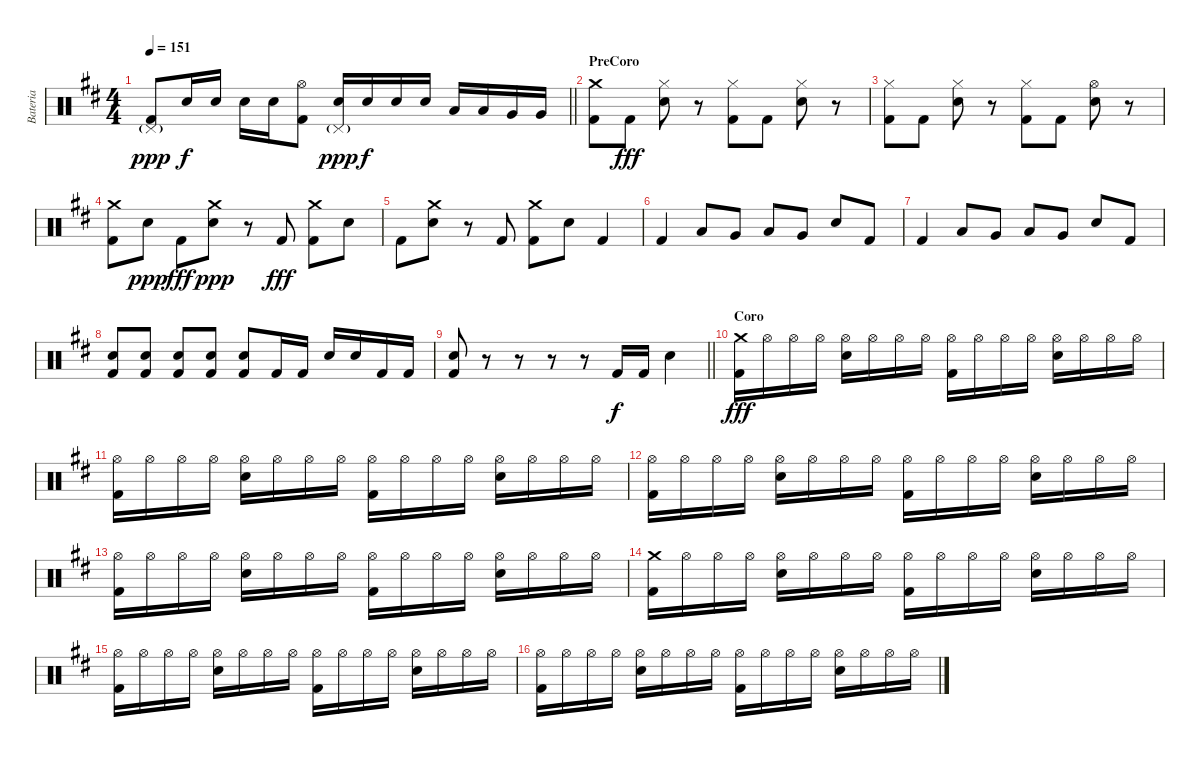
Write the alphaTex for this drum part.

\track ("Bateria " "Bateria ") {instrument percussion}
\staff {score}
\articulation defaults
\ts (4 4)
\tempo 151
\clef neutral
\barLineRight lightlight
\ks d
("Pedal Hi-Hat (hit)"{g} "Kick (hit) 2").8{dy ppp} "Electric Snare (hit)".16{dy f} "Electric Snare (hit)".16 "Electric Snare (hit)".16 "Electric Snare (hit)".16 ("Hi-Hat (open)" "Kick (hit) 2").8 ("Pedal Hi-Hat (hit)"{g} "Electric Snare (hit)").16{dy ppp} "Electric Snare (hit)".16{dy f} "Electric Snare (hit)".16 "Electric Snare (hit)".16 "Low Tom (hit)".16 "Low Tom (hit)".16 "Very Low Tom (hit)".16 "Very Low Tom (hit)".16 |
\section ("" "PreCoro")
("Crash medium (hit)" "Kick (hit) 2").8 "Kick (hit) 2".8{dy fff} ("Hi-Hat (closed)" "Electric Snare (hit)").8 r.8 ("Hi-Hat (closed)" "Kick (hit) 2").8 "Kick (hit) 2".8 ("Hi-Hat (closed)" "Electric Snare (hit)").8 r.8 |
("Hi-Hat (closed)" "Kick (hit) 2").8 "Kick (hit) 2".8 ("Hi-Hat (closed)" "Electric Snare (hit)").8 r.8 ("Hi-Hat (closed)" "Kick (hit) 2").8 "Kick (hit) 2".8 ("Hi-Hat (open)" "Electric Snare (hit)").8 r.8 |
("Crash medium (hit)" "Kick (hit) 2").8 "Electric Snare (hit)".8{dy ppp} "Kick (hit) 2".8{dy fff} ("Crash medium (hit)" "Electric Snare (hit)").8{dy ppp} r.8 "Kick (hit) 2".8{dy fff} ("Crash medium (hit)" "Kick (hit) 2").8 "Electric Snare (hit)".8 |
"Kick (hit) 2".8 ("Crash medium (hit)" "Electric Snare (hit)").8 r.8 "Kick (hit) 2".8 ("Crash medium (hit)" "Kick (hit) 2").8 "Electric Snare (hit)".8 "Kick (hit) 2".4 |
"Kick (hit) 2".4 "Low Tom (hit)".8 "Very Low Tom (hit)".8 "Low Floor Tom (hit)".8 "Very Low Tom (hit)".8 "Electric Snare (hit)".8 "Kick (hit) 2".8 |
"Kick (hit) 2".4 "Low Tom (hit)".8 "Very Low Tom (hit)".8 "Low Floor Tom (hit)".8 "Very Low Tom (hit)".8 "Electric Snare (hit)".8 "Kick (hit) 2".8 |
("Electric Snare (hit)" "Kick (hit) 2").8 ("Electric Snare (hit)" "Kick (hit) 2").8 ("Electric Snare (hit)" "Kick (hit) 2").8 ("Electric Snare (hit)" "Kick (hit) 2").8 ("Electric Snare (hit)" "Kick (hit) 2").8 "Kick (hit) 2".16 "Kick (hit) 2".16 "Electric Snare (hit)".16 "Electric Snare (hit)".16 "Kick (hit) 2".16 "Kick (hit) 2".16 |
\barLineRight lightlight
("Electric Snare (hit)" "Kick (hit) 2").8 r.8 r.8 r.8 r.8 "Kick (hit) 2".16{dy f} "Kick (hit) 2".16 "Electric Snare (hit)".4 |
\section ("" "Coro")
("Crash medium (hit)" "Kick (hit) 2").16{dy fff} "Hi-Hat (open)".16 "Hi-Hat (open)".16 "Hi-Hat (open)".16 ("Hi-Hat (open)" "Electric Snare (hit)").16 "Hi-Hat (open)".16 "Hi-Hat (open)".16 "Hi-Hat (open)".16 ("Hi-Hat (open)" "Kick (hit) 2").16 "Hi-Hat (open)".16 "Hi-Hat (open)".16 "Hi-Hat (open)".16 ("Hi-Hat (open)" "Electric Snare (hit)").16 "Hi-Hat (open)".16 "Hi-Hat (open)".16 "Hi-Hat (open)".16 |
("Hi-Hat (open)" "Kick (hit) 2").16 "Hi-Hat (open)".16 "Hi-Hat (open)".16 "Hi-Hat (open)".16 ("Hi-Hat (open)" "Electric Snare (hit)").16 "Hi-Hat (open)".16 "Hi-Hat (open)".16 "Hi-Hat (open)".16 ("Hi-Hat (open)" "Kick (hit) 2").16 "Hi-Hat (open)".16 "Hi-Hat (open)".16 "Hi-Hat (open)".16 ("Hi-Hat (open)" "Electric Snare (hit)").16 "Hi-Hat (open)".16 "Hi-Hat (open)".16 "Hi-Hat (open)".16 |
("Hi-Hat (open)" "Kick (hit) 2").16 "Hi-Hat (open)".16 "Hi-Hat (open)".16 "Hi-Hat (open)".16 ("Hi-Hat (open)" "Electric Snare (hit)").16 "Hi-Hat (open)".16 "Hi-Hat (open)".16 "Hi-Hat (open)".16 ("Hi-Hat (open)" "Kick (hit) 2").16 "Hi-Hat (open)".16 "Hi-Hat (open)".16 "Hi-Hat (open)".16 ("Hi-Hat (open)" "Electric Snare (hit)").16 "Hi-Hat (open)".16 "Hi-Hat (open)".16 "Hi-Hat (open)".16 |
("Hi-Hat (open)" "Kick (hit) 2").16 "Hi-Hat (open)".16 "Hi-Hat (open)".16 "Hi-Hat (open)".16 ("Hi-Hat (open)" "Electric Snare (hit)").16 "Hi-Hat (open)".16 "Hi-Hat (open)".16 "Hi-Hat (open)".16 ("Hi-Hat (open)" "Kick (hit) 2").16 "Hi-Hat (open)".16 "Hi-Hat (open)".16 "Hi-Hat (open)".16 ("Hi-Hat (open)" "Electric Snare (hit)").16 "Hi-Hat (open)".16 "Hi-Hat (open)".16 "Hi-Hat (open)".16 |
("Crash medium (hit)" "Kick (hit) 2").16 "Hi-Hat (open)".16 "Hi-Hat (open)".16 "Hi-Hat (open)".16 ("Hi-Hat (open)" "Electric Snare (hit)").16 "Hi-Hat (open)".16 "Hi-Hat (open)".16 "Hi-Hat (open)".16 ("Hi-Hat (open)" "Kick (hit) 2").16 "Hi-Hat (open)".16 "Hi-Hat (open)".16 "Hi-Hat (open)".16 ("Hi-Hat (open)" "Electric Snare (hit)").16 "Hi-Hat (open)".16 "Hi-Hat (open)".16 "Hi-Hat (open)".16 |
("Hi-Hat (open)" "Kick (hit) 2").16 "Hi-Hat (open)".16 "Hi-Hat (open)".16 "Hi-Hat (open)".16 ("Hi-Hat (open)" "Electric Snare (hit)").16 "Hi-Hat (open)".16 "Hi-Hat (open)".16 "Hi-Hat (open)".16 ("Hi-Hat (open)" "Kick (hit) 2").16 "Hi-Hat (open)".16 "Hi-Hat (open)".16 "Hi-Hat (open)".16 ("Hi-Hat (open)" "Electric Snare (hit)").16 "Hi-Hat (open)".16 "Hi-Hat (open)".16 "Hi-Hat (open)".16 |
("Hi-Hat (open)" "Kick (hit) 2").16 "Hi-Hat (open)".16 "Hi-Hat (open)".16 "Hi-Hat (open)".16 ("Hi-Hat (open)" "Electric Snare (hit)").16 "Hi-Hat (open)".16 "Hi-Hat (open)".16 "Hi-Hat (open)".16 ("Hi-Hat (open)" "Kick (hit) 2").16 "Hi-Hat (open)".16 "Hi-Hat (open)".16 "Hi-Hat (open)".16 ("Hi-Hat (open)" "Electric Snare (hit)").16 "Hi-Hat (open)".16 "Hi-Hat (open)".16 "Hi-Hat (open)".16
